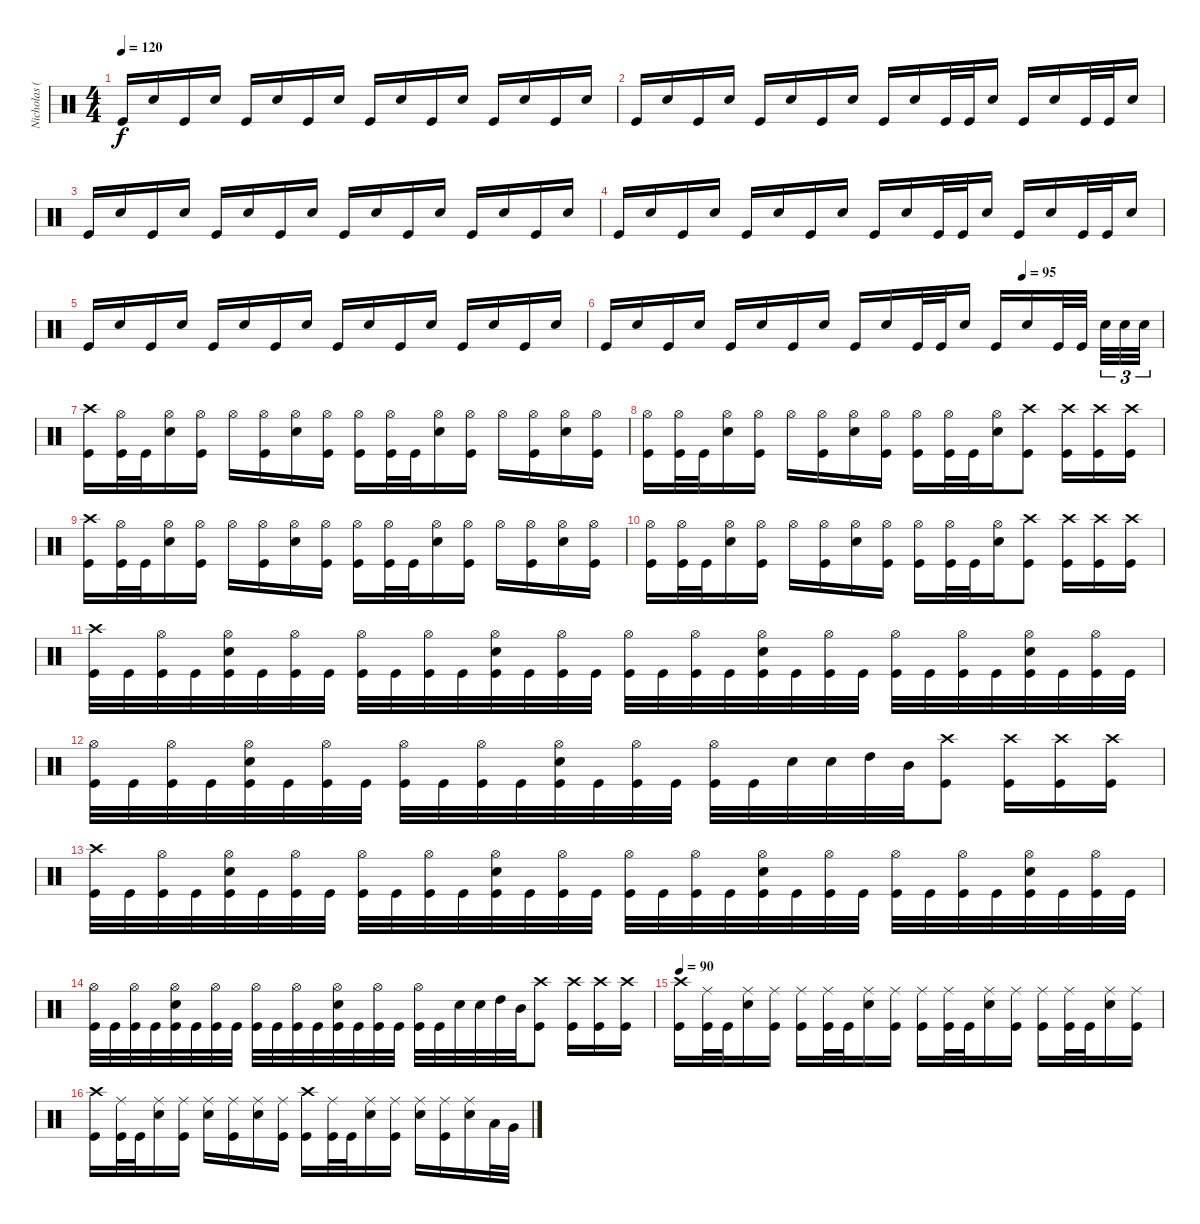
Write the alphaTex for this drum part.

\track ("Nicholas (Drums)" "Nicholas (") {instrument percussion}
\staff {score}
\articulation defaults
\ts (4 4)
\tempo 120
\clef neutral
\ks c "Kick (hit)".16{dy f} "Electric Snare (hit)".16 "Kick (hit)".16 "Electric Snare (hit)".16 "Kick (hit)".16 "Electric Snare (hit)".16 "Kick (hit)".16 "Electric Snare (hit)".16 "Kick (hit)".16 "Electric Snare (hit)".16 "Kick (hit)".16 "Electric Snare (hit)".16 "Kick (hit)".16 "Electric Snare (hit)".16 "Kick (hit)".16 "Electric Snare (hit)".16
|
"Kick (hit)".16 "Electric Snare (hit)".16 "Kick (hit)".16 "Electric Snare (hit)".16 "Kick (hit)".16 "Electric Snare (hit)".16 "Kick (hit)".16 "Electric Snare (hit)".16 "Kick (hit)".16 "Electric Snare (hit)".16 "Kick (hit)".32 "Kick (hit)".32 "Electric Snare (hit)".16 "Kick (hit)".16 "Electric Snare (hit)".16 "Kick (hit)".32 "Kick (hit)".32 "Electric Snare (hit)".16 |
"Kick (hit)".16 "Electric Snare (hit)".16 "Kick (hit)".16 "Electric Snare (hit)".16 "Kick (hit)".16 "Electric Snare (hit)".16 "Kick (hit)".16 "Electric Snare (hit)".16 "Kick (hit)".16 "Electric Snare (hit)".16 "Kick (hit)".16 "Electric Snare (hit)".16 "Kick (hit)".16 "Electric Snare (hit)".16 "Kick (hit)".16 "Electric Snare (hit)".16 |
"Kick (hit)".16 "Electric Snare (hit)".16 "Kick (hit)".16 "Electric Snare (hit)".16 "Kick (hit)".16 "Electric Snare (hit)".16 "Kick (hit)".16 "Electric Snare (hit)".16 "Kick (hit)".16 "Electric Snare (hit)".16 "Kick (hit)".32 "Kick (hit)".32 "Electric Snare (hit)".16 "Kick (hit)".16 "Electric Snare (hit)".16 "Kick (hit)".32 "Kick (hit)".32 "Electric Snare (hit)".16 |
"Kick (hit)".16 "Electric Snare (hit)".16 "Kick (hit)".16 "Electric Snare (hit)".16 "Kick (hit)".16 "Electric Snare (hit)".16 "Kick (hit)".16 "Electric Snare (hit)".16 "Kick (hit)".16 "Electric Snare (hit)".16 "Kick (hit)".16 "Electric Snare (hit)".16 "Kick (hit)".16 "Electric Snare (hit)".16 "Kick (hit)".16 "Electric Snare (hit)".16 |
\tempo (95 0.75)
"Kick (hit)".16 "Electric Snare (hit)".16 "Kick (hit)".16 "Electric Snare (hit)".16 "Kick (hit)".16 "Electric Snare (hit)".16 "Kick (hit)".16 "Electric Snare (hit)".16 "Kick (hit)".16 "Electric Snare (hit)".16 "Kick (hit)".32 "Kick (hit)".32 "Electric Snare (hit)".16 "Kick (hit)".16 "Electric Snare (hit)".16 "Kick (hit)".32 "Kick (hit)".32 "Electric Snare (hit)".32{tu (3 2)} "Electric Snare (hit)".32{tu (3 2)} "Electric Snare (hit)".32{tu (3 2)} |
("Crash high (hit)" "Kick (hit)").16 ("Hi-Hat (open)" "Kick (hit)").32 "Kick (hit)".32 ("Hi-Hat (open)" "Electric Snare (hit)").16 ("Hi-Hat (open)" "Kick (hit)").16 "Hi-Hat (open)".16 ("Hi-Hat (open)" "Kick (hit)").16 ("Hi-Hat (open)" "Electric Snare (hit)").16 ("Hi-Hat (open)" "Kick (hit)").16 ("Hi-Hat (open)" "Kick (hit)").16 ("Hi-Hat (open)" "Kick (hit)").32 "Kick (hit)".32 ("Hi-Hat (open)" "Electric Snare (hit)").16 ("Hi-Hat (open)" "Kick (hit)").16 "Hi-Hat (open)".16 ("Hi-Hat (open)" "Kick (hit)").16 ("Hi-Hat (open)" "Electric Snare (hit)").16 ("Hi-Hat (open)" "Kick (hit)").16 |
("Hi-Hat (open)" "Kick (hit)").16 ("Hi-Hat (open)" "Kick (hit)").32 "Kick (hit)".32 ("Hi-Hat (open)" "Electric Snare (hit)").16 ("Hi-Hat (open)" "Kick (hit)").16 "Hi-Hat (open)".16 ("Hi-Hat (open)" "Kick (hit)").16 ("Hi-Hat (open)" "Electric Snare (hit)").16 ("Hi-Hat (open)" "Kick (hit)").16 ("Hi-Hat (open)" "Kick (hit)").16 ("Hi-Hat (open)" "Kick (hit)").32 "Kick (hit)".32 ("Hi-Hat (open)" "Electric Snare (hit)").16 ("Crash high (hit)" "Kick (hit)").8 ("Crash high (hit)" "Kick (hit)").16 ("Crash high (hit)" "Kick (hit)").16 ("Crash high (hit)" "Kick (hit)").16 |
("Crash high (hit)" "Kick (hit)").16 ("Hi-Hat (open)" "Kick (hit)").32 "Kick (hit)".32 ("Hi-Hat (open)" "Electric Snare (hit)").16 ("Hi-Hat (open)" "Kick (hit)").16 "Hi-Hat (open)".16 ("Hi-Hat (open)" "Kick (hit)").16 ("Hi-Hat (open)" "Electric Snare (hit)").16 ("Hi-Hat (open)" "Kick (hit)").16 ("Hi-Hat (open)" "Kick (hit)").16 ("Hi-Hat (open)" "Kick (hit)").32 "Kick (hit)".32 ("Hi-Hat (open)" "Electric Snare (hit)").16 ("Hi-Hat (open)" "Kick (hit)").16 "Hi-Hat (open)".16 ("Hi-Hat (open)" "Kick (hit)").16 ("Hi-Hat (open)" "Electric Snare (hit)").16 ("Hi-Hat (open)" "Kick (hit)").16 |
("Hi-Hat (open)" "Kick (hit)").16 ("Hi-Hat (open)" "Kick (hit)").32 "Kick (hit)".32 ("Hi-Hat (open)" "Electric Snare (hit)").16 ("Hi-Hat (open)" "Kick (hit)").16 "Hi-Hat (open)".16 ("Hi-Hat (open)" "Kick (hit)").16 ("Hi-Hat (open)" "Electric Snare (hit)").16 ("Hi-Hat (open)" "Kick (hit)").16 ("Hi-Hat (open)" "Kick (hit)").16 ("Hi-Hat (open)" "Kick (hit)").32 "Kick (hit)".32 ("Hi-Hat (open)" "Electric Snare (hit)").16 ("Crash high (hit)" "Kick (hit)").8 ("Crash high (hit)" "Kick (hit)").16 ("Crash high (hit)" "Kick (hit)").16 ("Crash high (hit)" "Kick (hit)").16 |
("Crash high (hit)" "Kick (hit)").32 "Kick (hit)".32 ("Hi-Hat (open)" "Kick (hit)").32 "Kick (hit)".32 ("Hi-Hat (open)" "Electric Snare (hit)" "Kick (hit)").32 "Kick (hit)".32 ("Hi-Hat (open)" "Kick (hit)").32 "Kick (hit)".32 ("Hi-Hat (open)" "Kick (hit)").32 "Kick (hit)".32 ("Hi-Hat (open)" "Kick (hit)").32 "Kick (hit)".32 ("Hi-Hat (open)" "Electric Snare (hit)" "Kick (hit)").32 "Kick (hit)".32 ("Hi-Hat (open)" "Kick (hit)").32 "Kick (hit)".32 ("Hi-Hat (open)" "Kick (hit)").32 "Kick (hit)".32 ("Hi-Hat (open)" "Kick (hit)").32 "Kick (hit)".32 ("Hi-Hat (open)" "Electric Snare (hit)" "Kick (hit)").32 "Kick (hit)".32 ("Hi-Hat (open)" "Kick (hit)").32 "Kick (hit)".32 ("Hi-Hat (open)" "Kick (hit)").32 "Kick (hit)".32 ("Hi-Hat (open)" "Kick (hit)").32 "Kick (hit)".32 ("Hi-Hat (open)" "Electric Snare (hit)" "Kick (hit)").32 "Kick (hit)".32 ("Hi-Hat (open)" "Kick (hit)").32 "Kick (hit)".32 |
("Hi-Hat (open)" "Kick (hit)").32 "Kick (hit)".32 ("Hi-Hat (open)" "Kick (hit)").32 "Kick (hit)".32 ("Hi-Hat (open)" "Electric Snare (hit)" "Kick (hit)").32 "Kick (hit)".32 ("Hi-Hat (open)" "Kick (hit)").32 "Kick (hit)".32 ("Hi-Hat (open)" "Kick (hit)").32 "Kick (hit)".32 ("Hi-Hat (open)" "Kick (hit)").32 "Kick (hit)".32 ("Hi-Hat (open)" "Electric Snare (hit)" "Kick (hit)").32 "Kick (hit)".32 ("Hi-Hat (open)" "Kick (hit)").32 "Kick (hit)".32 ("Hi-Hat (open)" "Kick (hit)").32 "Kick (hit)".32 "Electric Snare (hit)".32 "Electric Snare (hit)".32 "High Tom (hit)".32 "Mid Tom (hit)".32 ("Crash high (hit)" "Kick (hit)").8 ("Crash high (hit)" "Kick (hit)").16 ("Crash high (hit)" "Kick (hit)").16 ("Crash high (hit)" "Kick (hit)").16 |
("Crash high (hit)" "Kick (hit)").32 "Kick (hit)".32 ("Hi-Hat (open)" "Kick (hit)").32 "Kick (hit)".32 ("Hi-Hat (open)" "Electric Snare (hit)" "Kick (hit)").32 "Kick (hit)".32 ("Hi-Hat (open)" "Kick (hit)").32 "Kick (hit)".32 ("Hi-Hat (open)" "Kick (hit)").32 "Kick (hit)".32 ("Hi-Hat (open)" "Kick (hit)").32 "Kick (hit)".32 ("Hi-Hat (open)" "Electric Snare (hit)" "Kick (hit)").32 "Kick (hit)".32 ("Hi-Hat (open)" "Kick (hit)").32 "Kick (hit)".32 ("Hi-Hat (open)" "Kick (hit)").32 "Kick (hit)".32 ("Hi-Hat (open)" "Kick (hit)").32 "Kick (hit)".32 ("Hi-Hat (open)" "Electric Snare (hit)" "Kick (hit)").32 "Kick (hit)".32 ("Hi-Hat (open)" "Kick (hit)").32 "Kick (hit)".32 ("Hi-Hat (open)" "Kick (hit)").32 "Kick (hit)".32 ("Hi-Hat (open)" "Kick (hit)").32 "Kick (hit)".32 ("Hi-Hat (open)" "Electric Snare (hit)" "Kick (hit)").32 "Kick (hit)".32 ("Hi-Hat (open)" "Kick (hit)").32 "Kick (hit)".32 |
("Hi-Hat (open)" "Kick (hit)").32 "Kick (hit)".32 ("Hi-Hat (open)" "Kick (hit)").32 "Kick (hit)".32 ("Hi-Hat (open)" "Electric Snare (hit)" "Kick (hit)").32 "Kick (hit)".32 ("Hi-Hat (open)" "Kick (hit)").32 "Kick (hit)".32 ("Hi-Hat (open)" "Kick (hit)").32 "Kick (hit)".32 ("Hi-Hat (open)" "Kick (hit)").32 "Kick (hit)".32 ("Hi-Hat (open)" "Electric Snare (hit)" "Kick (hit)").32 "Kick (hit)".32 ("Hi-Hat (open)" "Kick (hit)").32 "Kick (hit)".32 ("Hi-Hat (open)" "Kick (hit)").32 "Kick (hit)".32 "Electric Snare (hit)".32 "Electric Snare (hit)".32 "High Tom (hit)".32 "Mid Tom (hit)".32 ("Crash high (hit)" "Kick (hit)").8 ("Crash high (hit)" "Kick (hit)").16 ("Crash high (hit)" "Kick (hit)").16 ("Crash high (hit)" "Kick (hit)").16 |
\tempo 90
("Crash high (hit)" "Kick (hit)").16 ("Ride (middle)" "Kick (hit)").32 "Kick (hit)".32 ("Ride (middle)" "Electric Snare (hit)").16 ("Ride (middle)" "Kick (hit)").16 ("Ride (middle)" "Kick (hit)").16 ("Ride (middle)" "Kick (hit)").32 "Kick (hit)".32 ("Ride (middle)" "Electric Snare (hit)").16 ("Ride (middle)" "Kick (hit)").16 ("Ride (middle)" "Kick (hit)").16 ("Ride (middle)" "Kick (hit)").32 "Kick (hit)".32 ("Ride (middle)" "Electric Snare (hit)").16 ("Ride (middle)" "Kick (hit)").16 ("Ride (middle)" "Kick (hit)").16 ("Ride (middle)" "Kick (hit)").32 "Kick (hit)".32 ("Ride (middle)" "Electric Snare (hit)").16 ("Ride (middle)" "Kick (hit)").16 |
("Crash high (hit)" "Kick (hit)").16 ("Ride (middle)" "Kick (hit)").32 "Kick (hit)".32 ("Ride (middle)" "Electric Snare (hit)").16 ("Ride (middle)" "Kick (hit)").16 ("Ride (middle)" "Electric Snare (hit)").16 ("Ride (middle)" "Kick (hit)").16 ("Ride (middle)" "Electric Snare (hit)").16 ("Ride (middle)" "Kick (hit)").16 ("Crash high (hit)" "Kick (hit)").16 ("Ride (middle)" "Kick (hit)").32 "Kick (hit)".32 ("Ride (middle)" "Electric Snare (hit)").16 ("Ride (middle)" "Kick (hit)").16 ("Ride (middle)" "Electric Snare (hit)").16 ("Ride (middle)" "Kick (hit)").16 ("Ride (middle)" "Electric Snare (hit)").16 "Low Tom (hit)".32 "Very Low Tom (hit)".32
